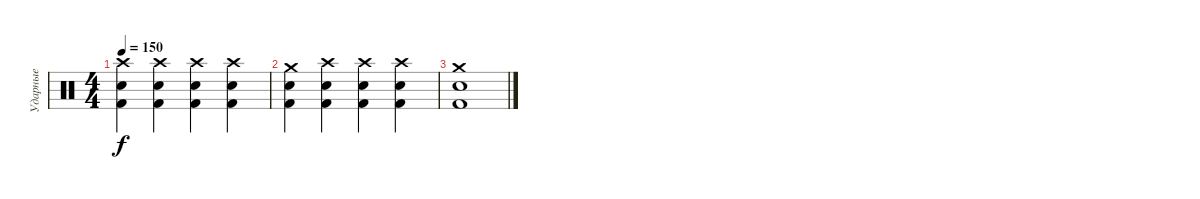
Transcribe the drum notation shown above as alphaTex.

\track ("Ударные" "Ударные") {instrument percussion}
\staff {score}
\articulation defaults
\ts (4 4)
\tempo 150
\clef neutral
\ks c
("Crash high (hit)" "Electric Snare (hit)" "Kick (hit) 2").4{dy f} ("Crash high (hit)" "Electric Snare (hit)" "Kick (hit) 2").4 ("Crash high (hit)" "Electric Snare (hit)" "Kick (hit) 2").4 ("Crash high (hit)" "Electric Snare (hit)" "Kick (hit) 2").4 |
("Crash medium (hit)" "Electric Snare (hit)" "Kick (hit) 2").4 ("Crash high (hit)" "Electric Snare (hit)" "Kick (hit) 2").4 ("Crash high (hit)" "Electric Snare (hit)" "Kick (hit) 2").4 ("Crash high (hit)" "Electric Snare (hit)" "Kick (hit) 2").4 |
("Crash medium (hit)" "Electric Snare (hit)" "Kick (hit) 2").1
